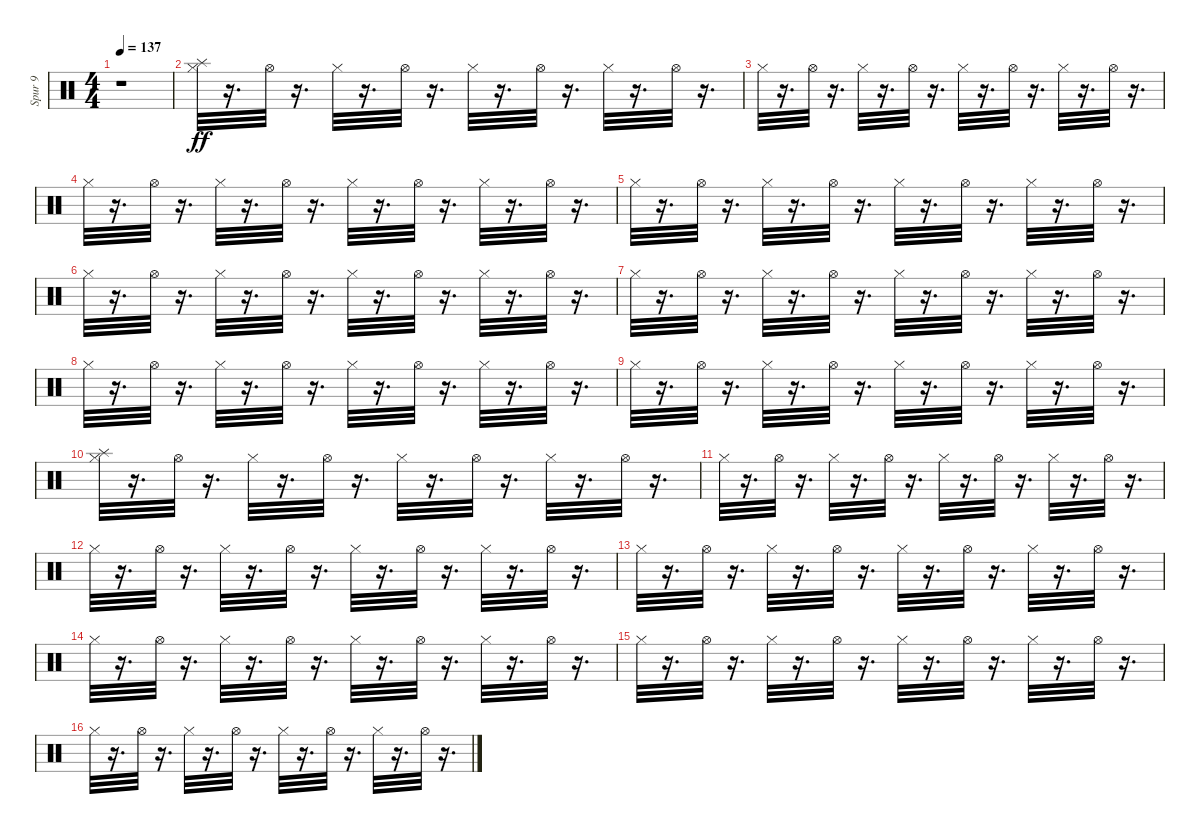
\track ("Spur 9" "Spur 9") {instrument percussion}
\staff {score}
\articulation defaults
\ts (4 4)
\tempo 137
\clef neutral
\ks c
r.1{dy ff} |
("Splash (hit)" "Hi-Hat (closed)").32 r.16{d} "Hi-Hat (open)".32 r.16{d} "Hi-Hat (closed)".32 r.16{d} "Hi-Hat (open)".32 r.16{d} "Hi-Hat (closed)".32 r.16{d} "Hi-Hat (open)".32 r.16{d} "Hi-Hat (closed)".32 r.16{d} "Hi-Hat (open)".32 r.16{d} |
"Hi-Hat (closed)".32 r.16{d} "Hi-Hat (open)".32 r.16{d} "Hi-Hat (closed)".32 r.16{d} "Hi-Hat (open)".32 r.16{d} "Hi-Hat (closed)".32 r.16{d} "Hi-Hat (open)".32 r.16{d} "Hi-Hat (closed)".32 r.16{d} "Hi-Hat (open)".32 r.16{d} |
"Hi-Hat (closed)".32 r.16{d} "Hi-Hat (open)".32 r.16{d} "Hi-Hat (closed)".32 r.16{d} "Hi-Hat (open)".32 r.16{d} "Hi-Hat (closed)".32 r.16{d} "Hi-Hat (open)".32 r.16{d} "Hi-Hat (closed)".32 r.16{d} "Hi-Hat (open)".32 r.16{d} |
"Hi-Hat (closed)".32 r.16{d} "Hi-Hat (open)".32 r.16{d} "Hi-Hat (closed)".32 r.16{d} "Hi-Hat (open)".32 r.16{d} "Hi-Hat (closed)".32 r.16{d} "Hi-Hat (open)".32 r.16{d} "Hi-Hat (closed)".32 r.16{d} "Hi-Hat (open)".32 r.16{d} |
"Hi-Hat (closed)".32 r.16{d} "Hi-Hat (open)".32 r.16{d} "Hi-Hat (closed)".32 r.16{d} "Hi-Hat (open)".32 r.16{d} "Hi-Hat (closed)".32 r.16{d} "Hi-Hat (open)".32 r.16{d} "Hi-Hat (closed)".32 r.16{d} "Hi-Hat (open)".32 r.16{d} |
"Hi-Hat (closed)".32 r.16{d} "Hi-Hat (open)".32 r.16{d} "Hi-Hat (closed)".32 r.16{d} "Hi-Hat (open)".32 r.16{d} "Hi-Hat (closed)".32 r.16{d} "Hi-Hat (open)".32 r.16{d} "Hi-Hat (closed)".32 r.16{d} "Hi-Hat (open)".32 r.16{d} |
"Hi-Hat (closed)".32 r.16{d} "Hi-Hat (open)".32 r.16{d} "Hi-Hat (closed)".32 r.16{d} "Hi-Hat (open)".32 r.16{d} "Hi-Hat (closed)".32 r.16{d} "Hi-Hat (open)".32 r.16{d} "Hi-Hat (closed)".32 r.16{d} "Hi-Hat (open)".32 r.16{d} |
"Hi-Hat (closed)".32 r.16{d} "Hi-Hat (open)".32 r.16{d} "Hi-Hat (closed)".32 r.16{d} "Hi-Hat (open)".32 r.16{d} "Hi-Hat (closed)".32 r.16{d} "Hi-Hat (open)".32 r.16{d} "Hi-Hat (closed)".32 r.16{d} "Hi-Hat (open)".32 r.16{d} |
("Splash (hit)" "Hi-Hat (closed)").32 r.16{d} "Hi-Hat (open)".32 r.16{d} "Hi-Hat (closed)".32 r.16{d} "Hi-Hat (open)".32 r.16{d} "Hi-Hat (closed)".32 r.16{d} "Hi-Hat (open)".32 r.16{d} "Hi-Hat (closed)".32 r.16{d} "Hi-Hat (open)".32 r.16{d} |
"Hi-Hat (closed)".32 r.16{d} "Hi-Hat (open)".32 r.16{d} "Hi-Hat (closed)".32 r.16{d} "Hi-Hat (open)".32 r.16{d} "Hi-Hat (closed)".32 r.16{d} "Hi-Hat (open)".32 r.16{d} "Hi-Hat (closed)".32 r.16{d} "Hi-Hat (open)".32 r.16{d} |
"Hi-Hat (closed)".32 r.16{d} "Hi-Hat (open)".32 r.16{d} "Hi-Hat (closed)".32 r.16{d} "Hi-Hat (open)".32 r.16{d} "Hi-Hat (closed)".32 r.16{d} "Hi-Hat (open)".32 r.16{d} "Hi-Hat (closed)".32 r.16{d} "Hi-Hat (open)".32 r.16{d} |
"Hi-Hat (closed)".32 r.16{d} "Hi-Hat (open)".32 r.16{d} "Hi-Hat (closed)".32 r.16{d} "Hi-Hat (open)".32 r.16{d} "Hi-Hat (closed)".32 r.16{d} "Hi-Hat (open)".32 r.16{d} "Hi-Hat (closed)".32 r.16{d} "Hi-Hat (open)".32 r.16{d} |
"Hi-Hat (closed)".32 r.16{d} "Hi-Hat (open)".32 r.16{d} "Hi-Hat (closed)".32 r.16{d} "Hi-Hat (open)".32 r.16{d} "Hi-Hat (closed)".32 r.16{d} "Hi-Hat (open)".32 r.16{d} "Hi-Hat (closed)".32 r.16{d} "Hi-Hat (open)".32 r.16{d} |
"Hi-Hat (closed)".32 r.16{d} "Hi-Hat (open)".32 r.16{d} "Hi-Hat (closed)".32 r.16{d} "Hi-Hat (open)".32 r.16{d} "Hi-Hat (closed)".32 r.16{d} "Hi-Hat (open)".32 r.16{d} "Hi-Hat (closed)".32 r.16{d} "Hi-Hat (open)".32 r.16{d} |
"Hi-Hat (closed)".32 r.16{d} "Hi-Hat (open)".32 r.16{d} "Hi-Hat (closed)".32 r.16{d} "Hi-Hat (open)".32 r.16{d} "Hi-Hat (closed)".32 r.16{d} "Hi-Hat (open)".32 r.16{d} "Hi-Hat (closed)".32 r.16{d} "Hi-Hat (open)".32 r.16{d}
